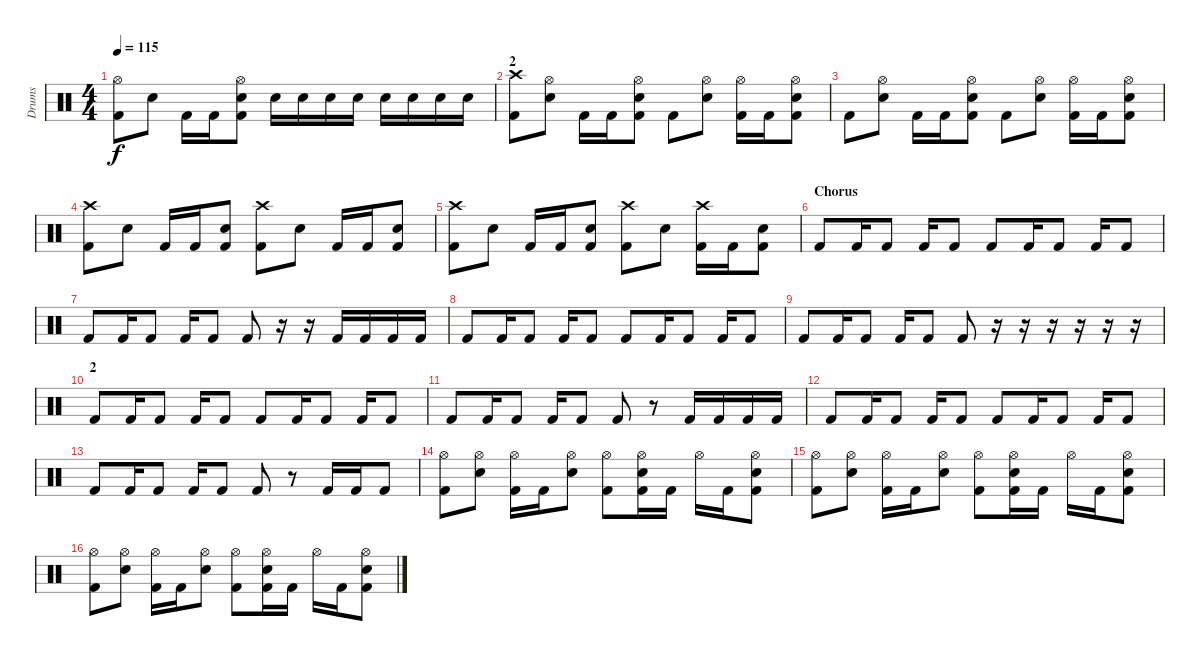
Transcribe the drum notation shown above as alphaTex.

\track ("Drums" "Drums") {instrument percussion}
\staff {score}
\articulation defaults
\ts (4 4)
\tempo 115
\clef neutral
\ks c
("Hi-Hat (open)" "Kick (hit) 2").8{dy f} "Snare (hit) 2".8 "Kick (hit) 2".16 "Kick (hit) 2".16 ("Hi-Hat (open)" "Snare (hit) 2" "Kick (hit) 2").8 "Snare (hit) 2".16 "Snare (hit) 2".16 "Snare (hit) 2".16 "Snare (hit) 2".16 "Snare (hit) 2".16 "Snare (hit) 2".16 "Snare (hit) 2".16 "Snare (hit) 2".16 |
\section ("" "2")
("Crash high (hit)" "Kick (hit) 2").8 ("Hi-Hat (open)" "Snare (hit) 2").8 "Kick (hit) 2".16 "Kick (hit) 2".16 ("Hi-Hat (open)" "Snare (hit) 2" "Kick (hit) 2").8 "Kick (hit) 2".8 ("Hi-Hat (open)" "Snare (hit) 2").8 ("Hi-Hat (open)" "Kick (hit) 2").16 "Kick (hit) 2".16 ("Hi-Hat (open)" "Snare (hit) 2" "Kick (hit) 2").8 |
"Kick (hit) 2".8 ("Hi-Hat (open)" "Snare (hit) 2").8 "Kick (hit) 2".16 "Kick (hit) 2".16 ("Hi-Hat (open)" "Snare (hit) 2" "Kick (hit) 2").8 "Kick (hit) 2".8 ("Hi-Hat (open)" "Snare (hit) 2").8 ("Hi-Hat (open)" "Kick (hit) 2").16 "Kick (hit) 2".16 ("Hi-Hat (open)" "Snare (hit) 2" "Kick (hit) 2").8 |
("Crash high (hit)" "Kick (hit) 2").8 "Snare (hit) 2".8 "Kick (hit) 2".16 "Kick (hit) 2".16 ("Snare (hit) 2" "Kick (hit) 2").8 ("Crash high (hit)" "Kick (hit) 2").8 "Snare (hit) 2".8 "Kick (hit) 2".16 "Kick (hit) 2".16 ("Snare (hit) 2" "Kick (hit) 2").8 |
("Crash high (hit)" "Kick (hit) 2").8 "Snare (hit) 2".8 "Kick (hit) 2".16 "Kick (hit) 2".16 ("Snare (hit) 2" "Kick (hit) 2").8 ("Crash high (hit)" "Kick (hit) 2").8 "Snare (hit) 2".8 ("Crash high (hit)" "Kick (hit) 2").16 "Kick (hit) 2".16 ("Snare (hit) 2" "Kick (hit) 2").8 |
\section ("" "Chorus")
"Kick (hit) 2".8 "Kick (hit) 2".16 "Kick (hit) 2".8 "Kick (hit) 2".16 "Kick (hit) 2".8 "Kick (hit) 2".8 "Kick (hit) 2".16 "Kick (hit) 2".8 "Kick (hit) 2".16 "Kick (hit) 2".8 |
"Kick (hit) 2".8 "Kick (hit) 2".16 "Kick (hit) 2".8 "Kick (hit) 2".16 "Kick (hit) 2".8 "Kick (hit) 2".8 r.16 r.16 "Kick (hit) 2".16 "Kick (hit) 2".16 "Kick (hit) 2".16 "Kick (hit) 2".16 |
"Kick (hit) 2".8 "Kick (hit) 2".16 "Kick (hit) 2".8 "Kick (hit) 2".16 "Kick (hit) 2".8 "Kick (hit) 2".8 "Kick (hit) 2".16 "Kick (hit) 2".8 "Kick (hit) 2".16 "Kick (hit) 2".8 |
"Kick (hit) 2".8 "Kick (hit) 2".16 "Kick (hit) 2".8 "Kick (hit) 2".16 "Kick (hit) 2".8 "Kick (hit) 2".8 r.16 r.16 r.16 r.16 r.16 r.16 |
\section ("" "2")
"Kick (hit) 2".8 "Kick (hit) 2".16 "Kick (hit) 2".8 "Kick (hit) 2".16 "Kick (hit) 2".8 "Kick (hit) 2".8 "Kick (hit) 2".16 "Kick (hit) 2".8 "Kick (hit) 2".16 "Kick (hit) 2".8 |
"Kick (hit) 2".8 "Kick (hit) 2".16 "Kick (hit) 2".8 "Kick (hit) 2".16 "Kick (hit) 2".8 "Kick (hit) 2".8 r.8 "Kick (hit) 2".16 "Kick (hit) 2".16 "Kick (hit) 2".16 "Kick (hit) 2".16 |
"Kick (hit) 2".8 "Kick (hit) 2".16 "Kick (hit) 2".8 "Kick (hit) 2".16 "Kick (hit) 2".8 "Kick (hit) 2".8 "Kick (hit) 2".16 "Kick (hit) 2".8 "Kick (hit) 2".16 "Kick (hit) 2".8 |
"Kick (hit) 2".8 "Kick (hit) 2".16 "Kick (hit) 2".8 "Kick (hit) 2".16 "Kick (hit) 2".8 "Kick (hit) 2".8 r.8 "Kick (hit) 2".16 "Kick (hit) 2".16 "Kick (hit) 2".8 |
\section ("" "")
("Hi-Hat (open)" "Kick (hit) 2").8 ("Hi-Hat (open)" "Snare (hit) 2").8 ("Hi-Hat (open)" "Kick (hit) 2").16 "Kick (hit) 2".16 ("Hi-Hat (open)" "Snare (hit) 2").8 ("Hi-Hat (open)" "Kick (hit) 2").8 ("Hi-Hat (open)" "Snare (hit) 2" "Kick (hit) 2").16 "Kick (hit) 2".16 "Hi-Hat (open)".16 "Kick (hit) 2".16 ("Hi-Hat (open)" "Snare (hit) 2" "Kick (hit) 2").8 |
("Hi-Hat (open)" "Kick (hit) 2").8 ("Hi-Hat (open)" "Snare (hit) 2").8 ("Hi-Hat (open)" "Kick (hit) 2").16 "Kick (hit) 2".16 ("Hi-Hat (open)" "Snare (hit) 2").8 ("Hi-Hat (open)" "Kick (hit) 2").8 ("Hi-Hat (open)" "Snare (hit) 2" "Kick (hit) 2").16 "Kick (hit) 2".16 "Hi-Hat (open)".16 "Kick (hit) 2".16 ("Hi-Hat (open)" "Snare (hit) 2" "Kick (hit) 2").8 |
("Hi-Hat (open)" "Kick (hit) 2").8 ("Hi-Hat (open)" "Snare (hit) 2").8 ("Hi-Hat (open)" "Kick (hit) 2").16 "Kick (hit) 2".16 ("Hi-Hat (open)" "Snare (hit) 2").8 ("Hi-Hat (open)" "Kick (hit) 2").8 ("Hi-Hat (open)" "Snare (hit) 2" "Kick (hit) 2").16 "Kick (hit) 2".16 "Hi-Hat (open)".16 "Kick (hit) 2".16 ("Hi-Hat (open)" "Snare (hit) 2" "Kick (hit) 2").8
